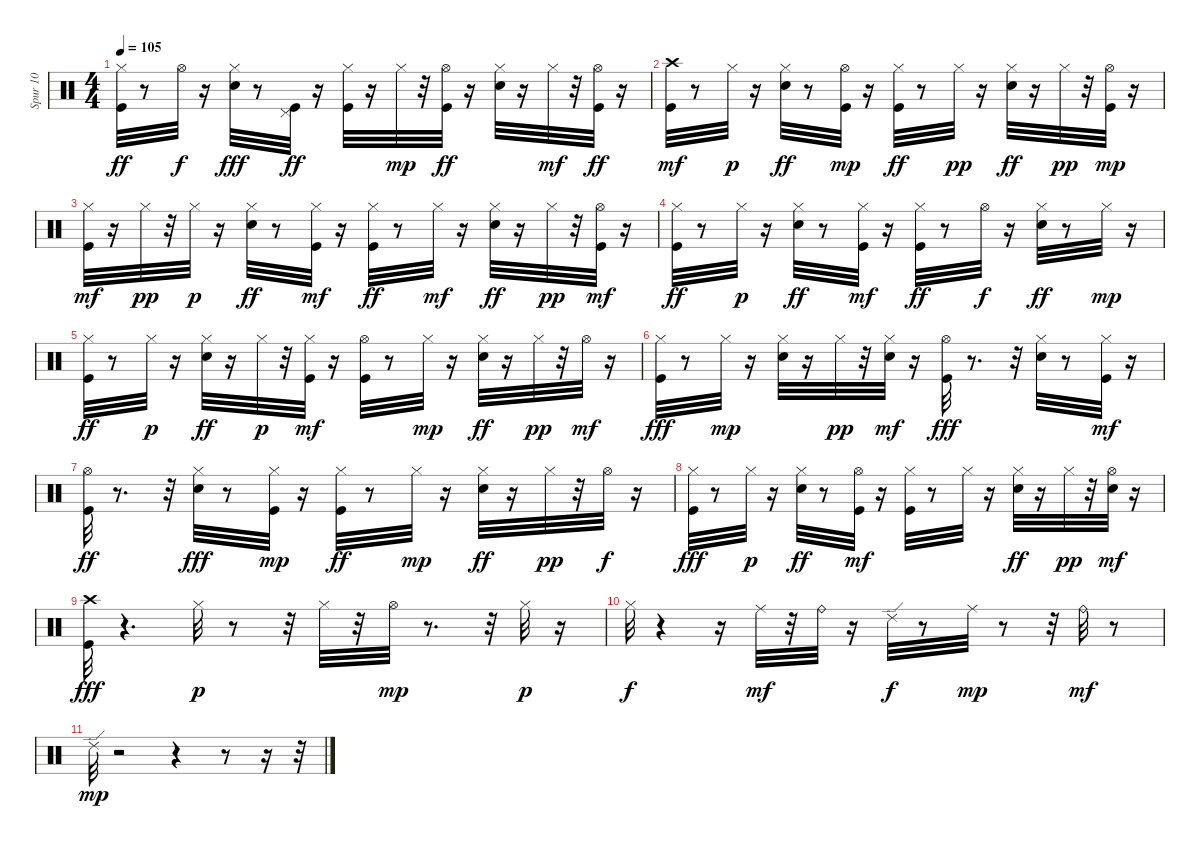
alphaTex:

\track ("Spur 10" "Spur 10") {instrument percussion}
\staff {score}
\articulation defaults
\ts (4 4)
\tempo 105
\clef neutral
\ks c
("Kick (hit)" "Hi-Hat (closed)").32{dy ff} r.8 "Hi-Hat (open)".32{dy f} r.16 ("Snare (hit) 2" "Hi-Hat (closed)").32{dy fff} r.8 ("Kick (hit)" "Pedal Hi-Hat (hit)").32{dy ff} r.16 ("Kick (hit)" "Hi-Hat (closed)").32 r.16 "Hi-Hat (closed)".32{dy mp} r.32 ("Kick (hit)" "Hi-Hat (open)").32{dy ff} r.16 ("Snare (hit) 2" "Hi-Hat (closed)").32 r.16 "Hi-Hat (closed)".32{dy mf} r.32 ("Kick (hit)" "Hi-Hat (open)").32{dy ff} r.16 |
("Kick (hit)" "Crash high (hit)").32{dy mf} r.8 "Hi-Hat (closed)".32{dy p} r.16 ("Snare (hit) 2" "Hi-Hat (closed)").32{dy ff} r.8 ("Kick (hit)" "Hi-Hat (open)").32{dy mp} r.16 ("Kick (hit)" "Hi-Hat (closed)").32{dy ff} r.8 "Hi-Hat (closed)".32{dy pp} r.16 ("Snare (hit) 2" "Hi-Hat (closed)").32{dy ff} r.16 "Hi-Hat (closed)".32{dy pp} r.32 ("Kick (hit)" "Hi-Hat (open)").32{dy mp} r.16 |
("Kick (hit)" "Hi-Hat (closed)").32{dy mf} r.16 "Hi-Hat (closed)".32{dy pp} r.32 "Hi-Hat (closed)".32{dy p} r.16 ("Snare (hit) 2" "Hi-Hat (closed)").32{dy ff} r.8 ("Kick (hit)" "Hi-Hat (closed)").32{dy mf} r.16 ("Kick (hit)" "Hi-Hat (closed)").32{dy ff} r.8 "Hi-Hat (closed)".32{dy mf} r.16 ("Snare (hit) 2" "Hi-Hat (closed)").32{dy ff} r.16 "Hi-Hat (closed)".32{dy pp} r.32 ("Kick (hit)" "Hi-Hat (open)").32{dy mf} r.16 |
("Kick (hit)" "Hi-Hat (closed)").32{dy ff} r.8 "Hi-Hat (closed)".32{dy p} r.16 ("Snare (hit) 2" "Hi-Hat (closed)").32{dy ff} r.8 ("Kick (hit)" "Hi-Hat (closed)").32{dy mf} r.16 ("Kick (hit)" "Hi-Hat (closed)").32{dy ff} r.8 "Hi-Hat (open)".32{dy f} r.16 ("Snare (hit) 2" "Hi-Hat (closed)").32{dy ff} r.8 "Hi-Hat (closed)".32{dy mp} r.16 |
("Kick (hit)" "Hi-Hat (closed)").32{dy ff} r.8 "Hi-Hat (closed)".32{dy p} r.16 ("Snare (hit) 2" "Hi-Hat (closed)").32{dy ff} r.16 "Hi-Hat (closed)".32{dy p} r.32 ("Kick (hit)" "Hi-Hat (closed)").32{dy mf} r.16 ("Kick (hit)" "Hi-Hat (open)").32 r.8 "Hi-Hat (closed)".32{dy mp} r.16 ("Snare (hit) 2" "Hi-Hat (closed)").32{dy ff} r.16 "Hi-Hat (closed)".32{dy pp} r.32 "Hi-Hat (open)".32{dy mf} r.16 |
("Kick (hit)" "Hi-Hat (closed)").32{dy fff} r.8 "Hi-Hat (closed)".32{dy mp} r.16 ("Snare (hit) 2" "Hi-Hat (closed)").32 r.16 "Hi-Hat (closed)".32{dy pp} r.32 ("Snare (hit) 2" "Hi-Hat (closed)").32{dy mf} r.16 ("Kick (hit)" "Hi-Hat (open)").32{dy fff} r.8{d} r.32 ("Snare (hit) 2" "Hi-Hat (closed)").32 r.8 ("Kick (hit)" "Hi-Hat (closed)").32{dy mf} r.16 |
("Kick (hit)" "Hi-Hat (open)").32{dy ff} r.8{d} r.32 ("Snare (hit) 2" "Hi-Hat (closed)").32{dy fff} r.8 ("Kick (hit)" "Hi-Hat (closed)").32{dy mp} r.16 ("Kick (hit)" "Hi-Hat (closed)").32{dy ff} r.8 "Hi-Hat (closed)".32{dy mp} r.16 ("Snare (hit) 2" "Hi-Hat (closed)").32{dy ff} r.16 "Hi-Hat (closed)".32{dy pp} r.32 "Hi-Hat (open)".32{dy f} r.16 |
("Kick (hit)" "Hi-Hat (closed)").32{dy fff} r.8 "Hi-Hat (closed)".32{dy p} r.16 ("Snare (hit) 2" "Hi-Hat (closed)").32{dy ff} r.8 ("Kick (hit)" "Hi-Hat (open)").32{dy mf} r.16 ("Kick (hit)" "Hi-Hat (closed)").32 r.8 "Hi-Hat (closed)".32 r.16 ("Snare (hit) 2" "Hi-Hat (closed)").32{dy ff} r.16 "Hi-Hat (closed)".32{dy pp} r.32 ("Snare (hit) 2" "Hi-Hat (open)").32{dy mf} r.16 |
("Kick (hit)" "Crash high (hit)").32{dy fff} r.4{d} "Hi-Hat (closed)".32{dy p} r.8 r.32 "Hi-Hat (closed)".32 r.32 "Hi-Hat (open)".32{dy mp} r.8{d} r.32 "Hi-Hat (closed)".32{dy p} r.16 |
"Hi-Hat (closed)".32{dy f} r.4 r.16 "Ride (middle)".32{dy mf} r.32 "Ride (bell)".32 r.16 "Ride (edge) 2".32{dy f} r.8 "Ride (middle)".32{dy mp} r.8 r.32 "Ride (bell)".32{dy mf} r.8 |
"Ride (edge) 2".32{dy mp} r.2 r.4 r.8 r.16 r.32
